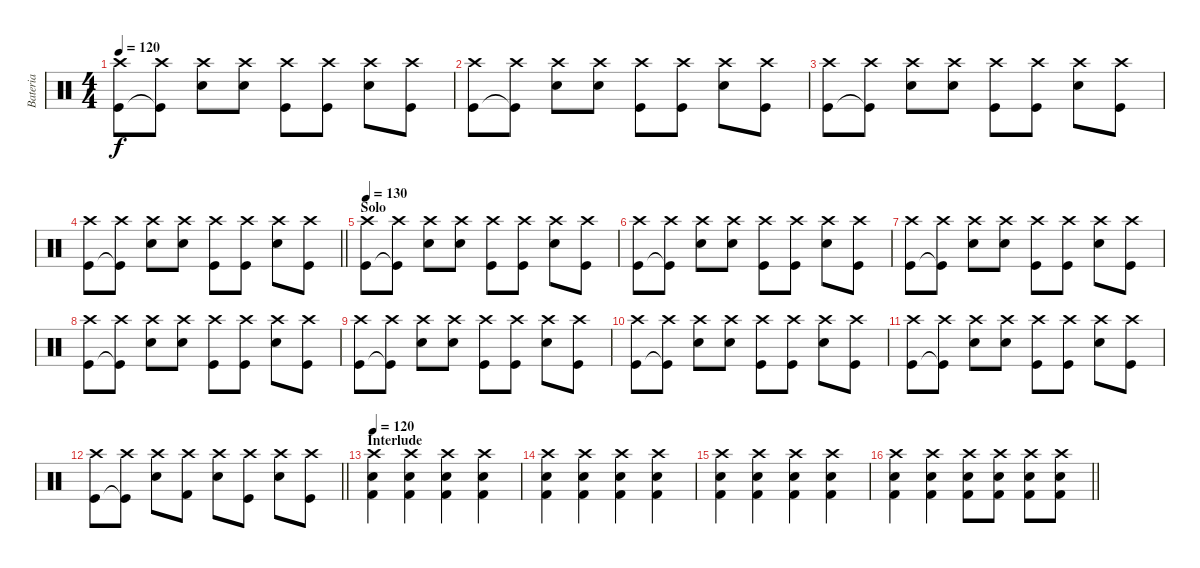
\track ("Bateria" "Bateria") {instrument percussion}
\staff {score}
\articulation defaults
\ts (4 4)
\tempo 120
\clef neutral
\ks c
("Crash high (hit)" "Kick (hit)").8{dy f} ("Crash high (hit)" "Kick (hit)"{t}).8 ("Crash high (hit)" "Snare (hit) 2").8 ("Crash high (hit)" "Snare (hit) 2").8 ("Crash high (hit)" "Kick (hit)").8 ("Crash high (hit)" "Kick (hit)").8 ("Crash high (hit)" "Snare (hit) 2").8 ("Crash high (hit)" "Kick (hit)").8 |
("Crash high (hit)" "Kick (hit)").8 ("Crash high (hit)" "Kick (hit)"{t}).8 ("Crash high (hit)" "Snare (hit) 2").8 ("Crash high (hit)" "Snare (hit) 2").8 ("Crash high (hit)" "Kick (hit)").8 ("Crash high (hit)" "Kick (hit)").8 ("Crash high (hit)" "Snare (hit) 2").8 ("Crash high (hit)" "Kick (hit)").8 |
("Crash high (hit)" "Kick (hit)").8 ("Crash high (hit)" "Kick (hit)"{t}).8 ("Crash high (hit)" "Snare (hit) 2").8 ("Crash high (hit)" "Snare (hit) 2").8 ("Crash high (hit)" "Kick (hit)").8 ("Crash high (hit)" "Kick (hit)").8 ("Crash high (hit)" "Snare (hit) 2").8 ("Crash high (hit)" "Kick (hit)").8 |
\barLineRight lightlight
("Crash high (hit)" "Kick (hit)").8 ("Crash high (hit)" "Kick (hit)"{t}).8 ("Crash high (hit)" "Snare (hit) 2").8 ("Crash high (hit)" "Snare (hit) 2").8 ("Crash high (hit)" "Kick (hit)").8 ("Crash high (hit)" "Kick (hit)").8 ("Crash high (hit)" "Snare (hit) 2").8 ("Crash high (hit)" "Kick (hit)").8 |
\section ("" "Solo")
\tempo 130
("Crash high (hit)" "Kick (hit)").8 ("Crash high (hit)" "Kick (hit)"{t}).8 ("Crash high (hit)" "Snare (hit) 2").8 ("Crash high (hit)" "Snare (hit) 2").8 ("Crash high (hit)" "Kick (hit)").8 ("Crash high (hit)" "Kick (hit)").8 ("Crash high (hit)" "Snare (hit) 2").8 ("Crash high (hit)" "Kick (hit)").8 |
("Crash high (hit)" "Kick (hit)").8 ("Crash high (hit)" "Kick (hit)"{t}).8 ("Crash high (hit)" "Snare (hit) 2").8 ("Crash high (hit)" "Snare (hit) 2").8 ("Crash high (hit)" "Kick (hit)").8 ("Crash high (hit)" "Kick (hit)").8 ("Crash high (hit)" "Snare (hit) 2").8 ("Crash high (hit)" "Kick (hit)").8 |
("Crash high (hit)" "Kick (hit)").8 ("Crash high (hit)" "Kick (hit)"{t}).8 ("Crash high (hit)" "Snare (hit) 2").8 ("Crash high (hit)" "Snare (hit) 2").8 ("Crash high (hit)" "Kick (hit)").8 ("Crash high (hit)" "Kick (hit)").8 ("Crash high (hit)" "Snare (hit) 2").8 ("Crash high (hit)" "Kick (hit)").8 |
("Crash high (hit)" "Kick (hit)").8 ("Crash high (hit)" "Kick (hit)"{t}).8 ("Crash high (hit)" "Snare (hit) 2").8 ("Crash high (hit)" "Snare (hit) 2").8 ("Crash high (hit)" "Kick (hit)").8 ("Crash high (hit)" "Kick (hit)").8 ("Crash high (hit)" "Snare (hit) 2").8 ("Crash high (hit)" "Kick (hit)").8 |
("Crash high (hit)" "Kick (hit)").8 ("Crash high (hit)" "Kick (hit)"{t}).8 ("Crash high (hit)" "Snare (hit) 2").8 ("Crash high (hit)" "Snare (hit) 2").8 ("Crash high (hit)" "Kick (hit)").8 ("Crash high (hit)" "Kick (hit)").8 ("Crash high (hit)" "Snare (hit) 2").8 ("Crash high (hit)" "Kick (hit)").8 |
("Crash high (hit)" "Kick (hit)").8 ("Crash high (hit)" "Kick (hit)"{t}).8 ("Crash high (hit)" "Snare (hit) 2").8 ("Crash high (hit)" "Snare (hit) 2").8 ("Crash high (hit)" "Kick (hit)").8 ("Crash high (hit)" "Kick (hit)").8 ("Crash high (hit)" "Snare (hit) 2").8 ("Crash high (hit)" "Kick (hit)").8 |
("Crash high (hit)" "Kick (hit)").8 ("Crash high (hit)" "Kick (hit)"{t}).8 ("Crash high (hit)" "Snare (hit) 2").8 ("Crash high (hit)" "Snare (hit) 2").8 ("Crash high (hit)" "Kick (hit)").8 ("Crash high (hit)" "Kick (hit)").8 ("Crash high (hit)" "Snare (hit) 2").8 ("Crash high (hit)" "Kick (hit)").8 |
\barLineRight lightlight
("Crash high (hit)" "Kick (hit)").8 ("Crash high (hit)" "Kick (hit)"{t}).8 ("Crash high (hit)" "Snare (hit) 2").8 ("Crash high (hit)" "Kick (hit) 2").8 ("Crash high (hit)" "Snare (hit) 2").8 ("Crash high (hit)" "Kick (hit)").8 ("Crash high (hit)" "Snare (hit) 2").8 ("Crash high (hit)" "Kick (hit)").8 |
\section ("" "Interlude")
\tempo 135
\tempo 120
("Crash high (hit)" "Snare (hit) 2" "Kick (hit) 2").4 ("Crash high (hit)" "Snare (hit) 2" "Kick (hit) 2").4 ("Crash high (hit)" "Snare (hit) 2" "Kick (hit) 2").4 ("Crash high (hit)" "Snare (hit) 2" "Kick (hit) 2").4 |
("Crash high (hit)" "Snare (hit) 2" "Kick (hit) 2").4 ("Crash high (hit)" "Snare (hit) 2" "Kick (hit) 2").4 ("Crash high (hit)" "Snare (hit) 2" "Kick (hit) 2").4 ("Crash high (hit)" "Snare (hit) 2" "Kick (hit) 2").4 |
("Crash high (hit)" "Snare (hit) 2" "Kick (hit) 2").4 ("Crash high (hit)" "Snare (hit) 2" "Kick (hit) 2").4 ("Crash high (hit)" "Snare (hit) 2" "Kick (hit) 2").4 ("Crash high (hit)" "Snare (hit) 2" "Kick (hit) 2").4 |
\barLineRight lightlight
("Crash high (hit)" "Snare (hit) 2" "Kick (hit) 2").4 ("Crash high (hit)" "Snare (hit) 2" "Kick (hit) 2").4 ("Crash high (hit)" "Snare (hit) 2" "Kick (hit) 2").8 ("Crash high (hit)" "Snare (hit) 2" "Kick (hit) 2").8 ("Crash high (hit)" "Snare (hit) 2" "Kick (hit) 2").8 ("Crash high (hit)" "Snare (hit) 2" "Kick (hit) 2").8
